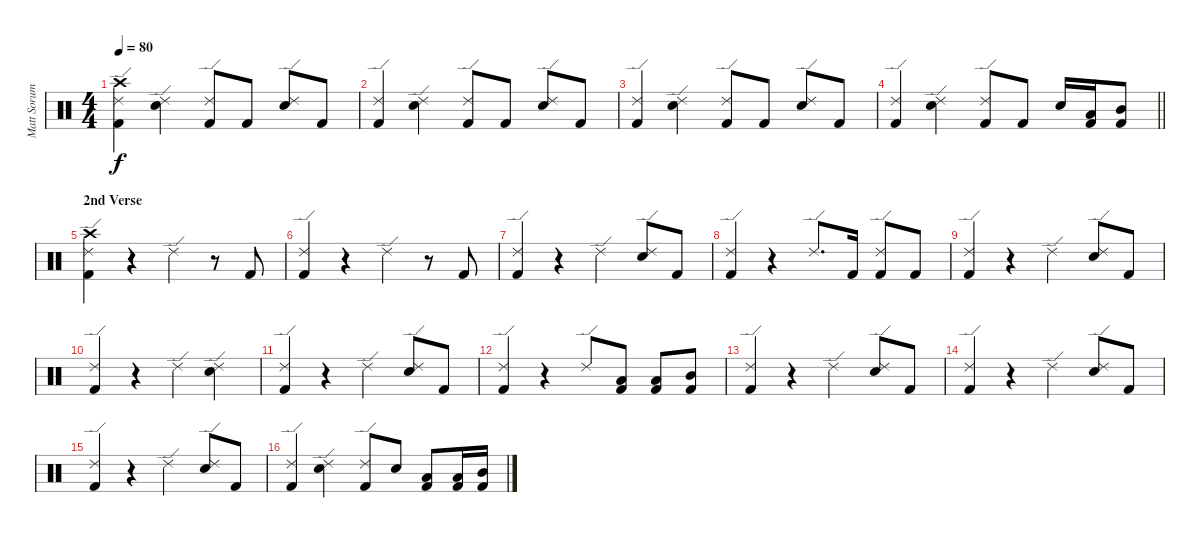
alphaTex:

\track ("Matt Sorum" "Matt Sorum") {instrument percussion}
\staff {score}
\articulation defaults
\ts (4 4)
\tempo 80
\clef neutral
\ks c
("Ride (edge) 2" "Kick (hit) 2" "Crash high (hit)").4{dy f} ("Electric Snare (hit)" "Ride (edge) 2").4 ("Ride (edge) 2" "Kick (hit) 2").8 "Kick (hit) 2".8 ("Electric Snare (hit)" "Ride (edge) 2").8 "Kick (hit) 2".8 |
("Ride (edge) 2" "Kick (hit) 2").4 ("Electric Snare (hit)" "Ride (edge) 2").4 ("Ride (edge) 2" "Kick (hit) 2").8 "Kick (hit) 2".8 ("Electric Snare (hit)" "Ride (edge) 2").8 "Kick (hit) 2".8 |
("Ride (edge) 2" "Kick (hit) 2").4 ("Electric Snare (hit)" "Ride (edge) 2").4 ("Ride (edge) 2" "Kick (hit) 2").8 "Kick (hit) 2".8 ("Electric Snare (hit)" "Ride (edge) 2").8 "Kick (hit) 2".8 |
\barLineRight lightlight
("Ride (edge) 2" "Kick (hit) 2").4 ("Electric Snare (hit)" "Ride (edge) 2").4 ("Ride (edge) 2" "Kick (hit) 2").8 "Kick (hit) 2".8 "Electric Snare (hit)".16 ("Low Tom (hit)" "Kick (hit) 2").16 ("Mid Tom (hit)" "Kick (hit) 2").8 |
\section ("" "2nd Verse")
("Ride (edge) 2" "Kick (hit) 2" "Crash high (hit)").4 r.4 "Ride (edge) 2".4 r.8 "Kick (hit) 2".8 |
("Ride (edge) 2" "Kick (hit) 2").4 r.4 "Ride (edge) 2".4 r.8 "Kick (hit) 2".8 |
("Ride (edge) 2" "Kick (hit) 2").4 r.4 "Ride (edge) 2".4 ("Electric Snare (hit)" "Ride (edge) 2").8 "Kick (hit) 2".8 |
("Ride (edge) 2" "Kick (hit) 2").4 r.4 "Ride (edge) 2".8{d} "Kick (hit) 2".16 ("Ride (edge) 2" "Kick (hit) 2").8 "Kick (hit) 2".8 |
("Ride (edge) 2" "Kick (hit) 2").4 r.4 "Ride (edge) 2".4 ("Electric Snare (hit)" "Ride (edge) 2").8 "Kick (hit) 2".8 |
("Ride (edge) 2" "Kick (hit) 2").4 r.4 "Ride (edge) 2".4 ("Electric Snare (hit)" "Ride (edge) 2").4 |
("Ride (edge) 2" "Kick (hit) 2").4 r.4 "Ride (edge) 2".4 ("Electric Snare (hit)" "Ride (edge) 2").8 "Kick (hit) 2".8 |
("Kick (hit) 2" "Ride (edge) 2").4 r.4 "Ride (edge) 2".8 ("Low Tom (hit)" "Kick (hit) 2").8 ("Low Tom (hit)" "Kick (hit) 2").8 ("Mid Tom (hit)" "Kick (hit) 2").8 |
("Ride (edge) 2" "Kick (hit) 2").4 r.4 "Ride (edge) 2".4 ("Snare (hit) 2" "Ride (edge) 2").8 "Kick (hit) 2".8 |
("Ride (edge) 2" "Kick (hit) 2").4 r.4 "Ride (edge) 2".4 ("Electric Snare (hit)" "Ride (edge) 2").8 "Kick (hit) 2".8 |
("Ride (edge) 2" "Kick (hit) 2").4 r.4 "Ride (edge) 2".4 ("Electric Snare (hit)" "Ride (edge) 2").8 "Kick (hit) 2".8 |
("Ride (edge) 2" "Kick (hit) 2").4 ("Electric Snare (hit)" "Ride (edge) 2").4 ("Ride (edge) 2" "Kick (hit) 2").8 "Electric Snare (hit)".8 ("Low Tom (hit)" "Kick (hit) 2").8 ("Low Tom (hit)" "Kick (hit) 2").16 ("Mid Tom (hit)" "Kick (hit) 2").16
